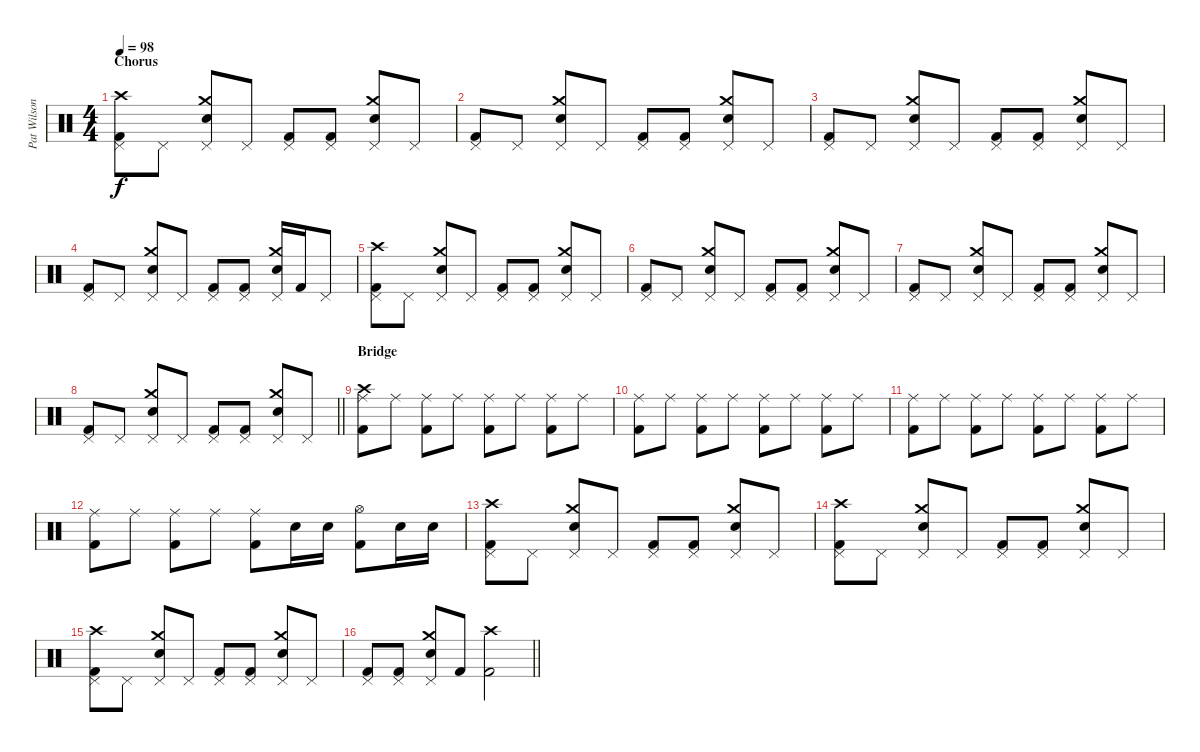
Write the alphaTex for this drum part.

\track ("Pat Wilson - Drums" "Pat Wilson") {instrument percussion}
\staff {score}
\articulation defaults
\ts (4 4)
\section ("" "Chorus")
\tempo 98
\clef neutral
\ks c
("Crash high (hit)" "Pedal Hi-Hat (hit)" "Kick (hit) 2").8{dy f} "Pedal Hi-Hat (hit)".8 ("Crash medium (hit)" "Pedal Hi-Hat (hit)" "Electric Snare (hit)").8 "Pedal Hi-Hat (hit)".8 ("Pedal Hi-Hat (hit)" "Kick (hit) 2").8 ("Pedal Hi-Hat (hit)" "Kick (hit) 2").8 ("Crash medium (hit)" "Pedal Hi-Hat (hit)" "Electric Snare (hit)").8 "Pedal Hi-Hat (hit)".8 |
("Pedal Hi-Hat (hit)" "Kick (hit) 2").8 "Pedal Hi-Hat (hit)".8 ("Crash medium (hit)" "Pedal Hi-Hat (hit)" "Electric Snare (hit)").8 "Pedal Hi-Hat (hit)".8 ("Pedal Hi-Hat (hit)" "Kick (hit) 2").8 ("Pedal Hi-Hat (hit)" "Kick (hit) 2").8 ("Crash medium (hit)" "Pedal Hi-Hat (hit)" "Electric Snare (hit)").8 "Pedal Hi-Hat (hit)".8 |
("Pedal Hi-Hat (hit)" "Kick (hit) 2").8 "Pedal Hi-Hat (hit)".8 ("Crash medium (hit)" "Pedal Hi-Hat (hit)" "Electric Snare (hit)").8 "Pedal Hi-Hat (hit)".8 ("Pedal Hi-Hat (hit)" "Kick (hit) 2").8 ("Pedal Hi-Hat (hit)" "Kick (hit) 2").8 ("Crash medium (hit)" "Pedal Hi-Hat (hit)" "Electric Snare (hit)").8 "Pedal Hi-Hat (hit)".8 |
("Pedal Hi-Hat (hit)" "Kick (hit) 2").8 "Pedal Hi-Hat (hit)".8 ("Crash medium (hit)" "Pedal Hi-Hat (hit)" "Electric Snare (hit)").8 "Pedal Hi-Hat (hit)".8 ("Pedal Hi-Hat (hit)" "Kick (hit) 2").8 ("Pedal Hi-Hat (hit)" "Kick (hit) 2").8 ("Crash medium (hit)" "Pedal Hi-Hat (hit)" "Electric Snare (hit)").16 "Kick (hit) 2".16 "Pedal Hi-Hat (hit)".8 |
("Crash high (hit)" "Pedal Hi-Hat (hit)" "Kick (hit) 2").8 "Pedal Hi-Hat (hit)".8 ("Crash medium (hit)" "Pedal Hi-Hat (hit)" "Electric Snare (hit)").8 "Pedal Hi-Hat (hit)".8 ("Pedal Hi-Hat (hit)" "Kick (hit) 2").8 ("Pedal Hi-Hat (hit)" "Kick (hit) 2").8 ("Crash medium (hit)" "Pedal Hi-Hat (hit)" "Electric Snare (hit)").8 "Pedal Hi-Hat (hit)".8 |
("Pedal Hi-Hat (hit)" "Kick (hit) 2").8 "Pedal Hi-Hat (hit)".8 ("Crash medium (hit)" "Pedal Hi-Hat (hit)" "Electric Snare (hit)").8 "Pedal Hi-Hat (hit)".8 ("Pedal Hi-Hat (hit)" "Kick (hit) 2").8 ("Pedal Hi-Hat (hit)" "Kick (hit) 2").8 ("Crash medium (hit)" "Pedal Hi-Hat (hit)" "Electric Snare (hit)").8 "Pedal Hi-Hat (hit)".8 |
("Pedal Hi-Hat (hit)" "Kick (hit) 2").8 "Pedal Hi-Hat (hit)".8 ("Crash medium (hit)" "Pedal Hi-Hat (hit)" "Electric Snare (hit)").8 "Pedal Hi-Hat (hit)".8 ("Pedal Hi-Hat (hit)" "Kick (hit) 2").8 ("Pedal Hi-Hat (hit)" "Kick (hit) 2").8 ("Crash medium (hit)" "Pedal Hi-Hat (hit)" "Electric Snare (hit)").8 "Pedal Hi-Hat (hit)".8 |
\barLineRight lightlight
("Pedal Hi-Hat (hit)" "Kick (hit) 2").8 "Pedal Hi-Hat (hit)".8 ("Crash medium (hit)" "Pedal Hi-Hat (hit)" "Electric Snare (hit)").8 "Pedal Hi-Hat (hit)".8 ("Pedal Hi-Hat (hit)" "Kick (hit) 2").8 ("Pedal Hi-Hat (hit)" "Kick (hit) 2").8 ("Crash medium (hit)" "Pedal Hi-Hat (hit)" "Electric Snare (hit)").8 "Pedal Hi-Hat (hit)".8 |
\section ("" "Bridge")
("Crash high (hit)" "Ride (middle)" "Kick (hit) 2").8 "Ride (middle)".8 ("Ride (middle)" "Kick (hit) 2").8 "Ride (middle)".8 ("Ride (middle)" "Kick (hit) 2").8 "Ride (middle)".8 ("Ride (middle)" "Kick (hit) 2").8 "Ride (middle)".8 |
("Ride (middle)" "Kick (hit) 2").8 "Ride (middle)".8 ("Ride (middle)" "Kick (hit) 2").8 "Ride (middle)".8 ("Ride (middle)" "Kick (hit) 2").8 "Ride (middle)".8 ("Ride (middle)" "Kick (hit) 2").8 "Ride (middle)".8 |
("Ride (middle)" "Kick (hit) 2").8 "Ride (middle)".8 ("Ride (middle)" "Kick (hit) 2").8 "Ride (middle)".8 ("Ride (middle)" "Kick (hit) 2").8 "Ride (middle)".8 ("Ride (middle)" "Kick (hit) 2").8 "Ride (middle)".8 |
("Ride (middle)" "Kick (hit) 2").8 "Ride (middle)".8 ("Ride (middle)" "Kick (hit) 2").8 "Ride (middle)".8 ("Ride (middle)" "Kick (hit) 2").8 "Electric Snare (hit)".16 "Electric Snare (hit)".16 ("Hi-Hat (open)" "Kick (hit) 2").8 "Electric Snare (hit)".16 "Electric Snare (hit)".16 |
("Crash high (hit)" "Pedal Hi-Hat (hit)" "Kick (hit) 2").8 "Pedal Hi-Hat (hit)".8 ("Crash medium (hit)" "Pedal Hi-Hat (hit)" "Electric Snare (hit)").8 "Pedal Hi-Hat (hit)".8 ("Pedal Hi-Hat (hit)" "Kick (hit) 2").8 ("Pedal Hi-Hat (hit)" "Kick (hit) 2").8 ("Crash medium (hit)" "Pedal Hi-Hat (hit)" "Electric Snare (hit)").8 "Pedal Hi-Hat (hit)".8 |
("Crash high (hit)" "Pedal Hi-Hat (hit)" "Kick (hit) 2").8 "Pedal Hi-Hat (hit)".8 ("Crash medium (hit)" "Pedal Hi-Hat (hit)" "Electric Snare (hit)").8 "Pedal Hi-Hat (hit)".8 ("Pedal Hi-Hat (hit)" "Kick (hit) 2").8 ("Pedal Hi-Hat (hit)" "Kick (hit) 2").8 ("Crash medium (hit)" "Pedal Hi-Hat (hit)" "Electric Snare (hit)").8 "Pedal Hi-Hat (hit)".8 |
("Crash high (hit)" "Pedal Hi-Hat (hit)" "Kick (hit) 2").8 "Pedal Hi-Hat (hit)".8 ("Crash medium (hit)" "Pedal Hi-Hat (hit)" "Electric Snare (hit)").8 "Pedal Hi-Hat (hit)".8 ("Pedal Hi-Hat (hit)" "Kick (hit) 2").8 ("Pedal Hi-Hat (hit)" "Kick (hit) 2").8 ("Crash medium (hit)" "Pedal Hi-Hat (hit)" "Electric Snare (hit)").8 "Pedal Hi-Hat (hit)".8 |
\barLineRight lightlight
("Pedal Hi-Hat (hit)" "Kick (hit) 2").8 ("Pedal Hi-Hat (hit)" "Kick (hit) 2").8 ("Crash medium (hit)" "Pedal Hi-Hat (hit)" "Electric Snare (hit)").8 "Kick (hit) 2".8 ("Crash high (hit)" "Kick (hit) 2").2
